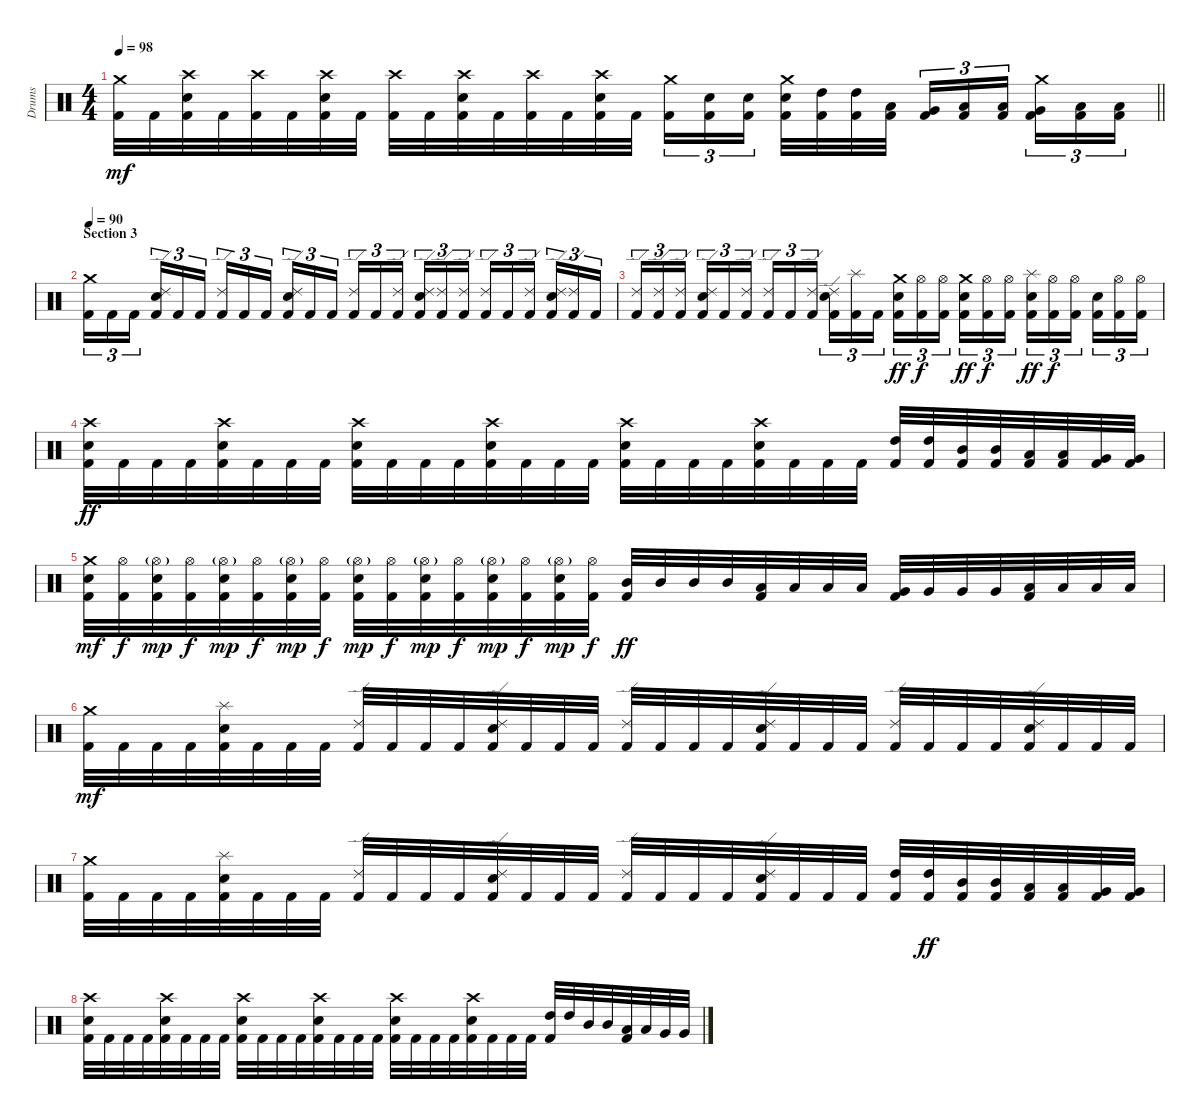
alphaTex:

\track ("Drums" "Drums") {instrument percussion}
\staff {score}
\articulation defaults
\ts (4 4)
\tempo 98
\clef neutral
\barLineRight lightlight
\ks c
("Crash medium (hit)" "Kick (hit) 2").32{dy mf} "Kick (hit) 2".32 ("Snare (hit) 2" "Crash high (hit)" "Kick (hit) 2").32 "Kick (hit) 2".32 ("Crash high (hit)" "Kick (hit) 2").32 "Kick (hit) 2".32 ("Snare (hit) 2" "Crash high (hit)" "Kick (hit) 2").32 "Kick (hit) 2".32 ("Crash high (hit)" "Kick (hit) 2").32 "Kick (hit) 2".32 ("Snare (hit) 2" "Crash high (hit)" "Kick (hit) 2").32 "Kick (hit) 2".32 ("Crash high (hit)" "Kick (hit) 2").32 "Kick (hit) 2".32 ("Snare (hit) 2" "Crash high (hit)" "Kick (hit) 2").32 "Kick (hit) 2".32 ("Crash medium (hit)" "Kick (hit) 2").16{tu (3 2)} ("Snare (hit) 2" "Kick (hit) 2").16{tu (3 2)} ("Snare (hit) 2" "Kick (hit) 2").16{tu (3 2) beam splitsecondary} ("Crash medium (hit)" "Snare (hit) 2" "Kick (hit) 2").32 ("High Tom (hit)" "Kick (hit) 2").32 ("High Tom (hit)" "Kick (hit) 2").32 ("Low Tom (hit)" "Kick (hit) 2").32 ("Very Low Tom (hit)" "Kick (hit) 2").16{tu (3 2)} ("Low Floor Tom (hit)" "Kick (hit) 2").16{tu (3 2)} ("Low Floor Tom (hit)" "Kick (hit) 2").16{tu (3 2) beam splitsecondary} ("Crash medium (hit)" "Very Low Tom (hit)" "Kick (hit) 2").16{tu (3 2)} ("Low Floor Tom (hit)" "Kick (hit) 2").16{tu (3 2)} ("Low Floor Tom (hit)" "Kick (hit) 2").16{tu (3 2)} |
\section ("" "Section 3")
\tempo 90
("Crash medium (hit)" "Kick (hit) 2").16{tu (3 2)} "Kick (hit) 2".16{tu (3 2)} "Kick (hit) 2".16{tu (3 2) beam splitsecondary} ("Snare (hit) 2" "Ride (edge) 2" "Kick (hit) 2").16{tu (3 2)} "Kick (hit) 2".16{tu (3 2)} "Kick (hit) 2".16{tu (3 2)} ("Ride (edge) 2" "Kick (hit) 2").16{tu (3 2)} "Kick (hit) 2".16{tu (3 2)} "Kick (hit) 2".16{tu (3 2) beam splitsecondary} ("Snare (hit) 2" "Ride (edge) 2" "Kick (hit) 2").16{tu (3 2)} "Kick (hit) 2".16{tu (3 2)} "Kick (hit) 2".16{tu (3 2)} ("Ride (edge) 2" "Kick (hit) 2").16{tu (3 2)} "Kick (hit) 2".16{tu (3 2)} ("Ride (edge) 2" "Kick (hit) 2").16{tu (3 2) beam splitsecondary} ("Snare (hit) 2" "Ride (edge) 2" "Kick (hit) 2").16{tu (3 2)} ("Ride (edge) 2" "Kick (hit) 2").16{tu (3 2)} ("Ride (edge) 2" "Kick (hit) 2").16{tu (3 2)} ("Ride (edge) 2" "Kick (hit) 2").16{tu (3 2)} "Kick (hit) 2".16{tu (3 2)} ("Ride (edge) 2" "Kick (hit) 2").16{tu (3 2) beam splitsecondary} ("Snare (hit) 2" "Ride (edge) 2" "Kick (hit) 2").16{tu (3 2)} ("Ride (edge) 2" "Kick (hit) 2").16{tu (3 2)} "Kick (hit) 2".16{tu (3 2)} |
("Ride (edge) 2" "Kick (hit) 2").16{tu (3 2)} ("Ride (edge) 2" "Kick (hit) 2").16{tu (3 2)} ("Ride (edge) 2" "Kick (hit) 2").16{tu (3 2) beam splitsecondary} ("Snare (hit) 2" "Ride (edge) 2" "Kick (hit) 2").16{tu (3 2)} "Kick (hit) 2".16{tu (3 2)} ("Ride (edge) 2" "Kick (hit) 2").16{tu (3 2)} ("Ride (edge) 2" "Kick (hit) 2").16{tu (3 2)} "Kick (hit) 2".16{tu (3 2)} ("Ride (edge) 2" "Kick (hit) 2").16{tu (3 2) beam splitsecondary} ("Snare (hit) 2" "Ride (edge) 2" "Kick (hit) 2").16{tu (3 2)} ("Splash (hit)" "Kick (hit) 2").16{tu (3 2)} "Kick (hit) 2".16{tu (3 2)} ("Crash medium (hit)" "Snare (hit) 2" "Kick (hit) 2").16{tu (3 2) dy ff} ("Hi-Hat (open)" "Kick (hit) 2").16{tu (3 2) dy f} ("Hi-Hat (open)" "Kick (hit) 2").16{tu (3 2) beam splitsecondary} ("Crash medium (hit)" "Snare (hit) 2" "Kick (hit) 2").16{tu (3 2) dy ff} ("Hi-Hat (open)" "Kick (hit) 2").16{tu (3 2) dy f} ("Hi-Hat (open)" "Kick (hit) 2").16{tu (3 2)} ("Splash (hit)" "Snare (hit) 2" "Kick (hit) 2").16{tu (3 2) dy ff} ("Hi-Hat (open)" "Kick (hit) 2").16{tu (3 2) dy f} ("Hi-Hat (open)" "Kick (hit) 2").16{tu (3 2) beam splitsecondary} ("Snare (hit) 2" "Kick (hit) 2").16{tu (3 2)} ("Hi-Hat (open)" "Kick (hit) 2").16{tu (3 2)} ("Hi-Hat (open)" "Kick (hit) 2").16{tu (3 2)} |
("Crash high (hit)" "Snare (hit) 2" "Kick (hit) 2").32{dy ff} "Kick (hit) 2".32 "Kick (hit) 2".32 "Kick (hit) 2".32 ("Crash high (hit)" "Snare (hit) 2" "Kick (hit) 2").32 "Kick (hit) 2".32 "Kick (hit) 2".32 "Kick (hit) 2".32 ("Crash high (hit)" "Snare (hit) 2" "Kick (hit) 2").32 "Kick (hit) 2".32 "Kick (hit) 2".32 "Kick (hit) 2".32 ("Crash high (hit)" "Snare (hit) 2" "Kick (hit) 2").32 "Kick (hit) 2".32 "Kick (hit) 2".32 "Kick (hit) 2".32 ("Crash high (hit)" "Snare (hit) 2" "Kick (hit) 2").32 "Kick (hit) 2".32 "Kick (hit) 2".32 "Kick (hit) 2".32 ("Crash high (hit)" "Snare (hit) 2" "Kick (hit) 2").32 "Kick (hit) 2".32 "Kick (hit) 2".32 "Kick (hit) 2".32 ("High Tom (hit)" "Kick (hit) 2").32 ("High Tom (hit)" "Kick (hit) 2").32 ("Mid Tom (hit)" "Kick (hit) 2").32 ("Mid Tom (hit)" "Kick (hit) 2").32 ("Low Tom (hit)" "Kick (hit) 2").32 ("Low Tom (hit)" "Kick (hit) 2").32 ("Very Low Tom (hit)" "Kick (hit) 2").32 ("Very Low Tom (hit)" "Kick (hit) 2").32 |
("Crash medium (hit)" "Snare (hit) 2" "Kick (hit) 2").32{dy mf} ("Hi-Hat (open)" "Kick (hit) 2").32{dy f} ("Snare (hit) 2" "Hi-Hat (open)"{g} "Kick (hit) 2").32{dy mp} ("Hi-Hat (open)" "Kick (hit) 2").32{dy f} ("Snare (hit) 2" "Hi-Hat (open)"{g} "Kick (hit) 2").32{dy mp} ("Hi-Hat (open)" "Kick (hit) 2").32{dy f} ("Snare (hit) 2" "Hi-Hat (open)"{g} "Kick (hit) 2").32{dy mp} ("Hi-Hat (open)" "Kick (hit) 2").32{dy f} ("Snare (hit) 2" "Hi-Hat (open)"{g} "Kick (hit) 2").32{dy mp} ("Hi-Hat (open)" "Kick (hit) 2").32{dy f} ("Snare (hit) 2" "Hi-Hat (open)"{g} "Kick (hit) 2").32{dy mp} ("Hi-Hat (open)" "Kick (hit) 2").32{dy f} ("Snare (hit) 2" "Hi-Hat (open)"{g} "Kick (hit) 2").32{dy mp} ("Hi-Hat (open)" "Kick (hit) 2").32{dy f} ("Snare (hit) 2" "Hi-Hat (open)"{g} "Kick (hit) 2").32{dy mp} ("Hi-Hat (open)" "Kick (hit) 2").32{dy f} ("Mid Tom (hit)" "Kick (hit) 2").32{dy ff} "Mid Tom (hit)".32 "Mid Tom (hit)".32 "Mid Tom (hit)".32 ("Low Tom (hit)" "Kick (hit) 2").32 "Low Tom (hit)".32 "Low Tom (hit)".32 "Low Tom (hit)".32 ("Very Low Tom (hit)" "Kick (hit) 2").32 "Very Low Tom (hit)".32 "Very Low Tom (hit)".32 "Very Low Tom (hit)".32 ("Low Floor Tom (hit)" "Kick (hit) 2").32 "Low Floor Tom (hit)".32 "Low Floor Tom (hit)".32 "Low Floor Tom (hit)".32 |
("Crash medium (hit)" "Kick (hit) 2").32{dy mf} "Kick (hit) 2".32 "Kick (hit) 2".32 "Kick (hit) 2".32 ("Snare (hit) 2" "Splash (hit)" "Kick (hit) 2").32 "Kick (hit) 2".32 "Kick (hit) 2".32 "Kick (hit) 2".32 ("Ride (edge) 2" "Kick (hit) 2").32 "Kick (hit) 2".32 "Kick (hit) 2".32 "Kick (hit) 2".32 ("Snare (hit) 2" "Ride (edge) 2" "Kick (hit) 2").32 "Kick (hit) 2".32 "Kick (hit) 2".32 "Kick (hit) 2".32 ("Ride (edge) 2" "Kick (hit) 2").32 "Kick (hit) 2".32 "Kick (hit) 2".32 "Kick (hit) 2".32 ("Snare (hit) 2" "Ride (edge) 2" "Kick (hit) 2").32 "Kick (hit) 2".32 "Kick (hit) 2".32 "Kick (hit) 2".32 ("Ride (edge) 2" "Kick (hit) 2").32 "Kick (hit) 2".32 "Kick (hit) 2".32 "Kick (hit) 2".32 ("Snare (hit) 2" "Ride (edge) 2" "Kick (hit) 2").32 "Kick (hit) 2".32 "Kick (hit) 2".32 "Kick (hit) 2".32 |
("Crash medium (hit)" "Kick (hit) 2").32 "Kick (hit) 2".32 "Kick (hit) 2".32 "Kick (hit) 2".32 ("Snare (hit) 2" "Splash (hit)" "Kick (hit) 2").32 "Kick (hit) 2".32 "Kick (hit) 2".32 "Kick (hit) 2".32 ("Ride (edge) 2" "Kick (hit) 2").32 "Kick (hit) 2".32 "Kick (hit) 2".32 "Kick (hit) 2".32 ("Snare (hit) 2" "Ride (edge) 2" "Kick (hit) 2").32 "Kick (hit) 2".32 "Kick (hit) 2".32 "Kick (hit) 2".32 ("Ride (edge) 2" "Kick (hit) 2").32 "Kick (hit) 2".32 "Kick (hit) 2".32 "Kick (hit) 2".32 ("Snare (hit) 2" "Ride (edge) 2" "Kick (hit) 2").32 "Kick (hit) 2".32 "Kick (hit) 2".32 "Kick (hit) 2".32 ("High Tom (hit)" "Kick (hit) 2").32 ("High Tom (hit)" "Kick (hit) 2").32{dy ff} ("Mid Tom (hit)" "Kick (hit) 2").32 ("Mid Tom (hit)" "Kick (hit) 2").32 ("Low Tom (hit)" "Kick (hit) 2").32 ("Low Tom (hit)" "Kick (hit) 2").32 ("Very Low Tom (hit)" "Kick (hit) 2").32 ("Very Low Tom (hit)" "Kick (hit) 2").32 |
("Crash high (hit)" "Snare (hit) 2" "Kick (hit) 2").32 "Kick (hit) 2".32 "Kick (hit) 2".32 "Kick (hit) 2".32 ("Crash high (hit)" "Snare (hit) 2" "Kick (hit) 2").32 "Kick (hit) 2".32 "Kick (hit) 2".32 "Kick (hit) 2".32 ("Crash high (hit)" "Snare (hit) 2" "Kick (hit) 2").32 "Kick (hit) 2".32 "Kick (hit) 2".32 "Kick (hit) 2".32 ("Crash high (hit)" "Snare (hit) 2" "Kick (hit) 2").32 "Kick (hit) 2".32 "Kick (hit) 2".32 "Kick (hit) 2".32 ("Crash high (hit)" "Snare (hit) 2" "Kick (hit) 2").32 "Kick (hit) 2".32 "Kick (hit) 2".32 "Kick (hit) 2".32 ("Crash high (hit)" "Snare (hit) 2" "Kick (hit) 2").32 "Kick (hit) 2".32 "Kick (hit) 2".32 "Kick (hit) 2".32 ("High Tom (hit)" "Kick (hit) 2").32 "High Tom (hit)".32 "Mid Tom (hit)".32 "Mid Tom (hit)".32 ("Low Tom (hit)" "Kick (hit) 2").32 "Low Tom (hit)".32 "Very Low Tom (hit)".32 "Very Low Tom (hit)".32
